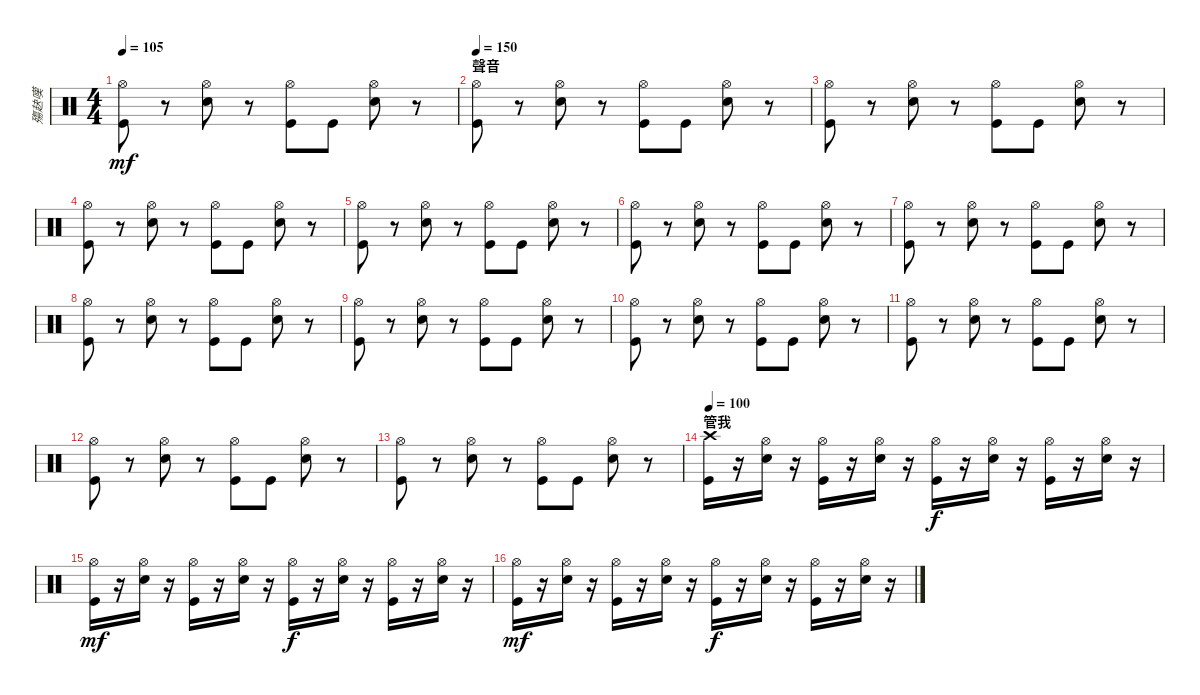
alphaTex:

\track ("殤赽嘆" "殤赽嘆") {instrument percussion}
\staff {score}
\articulation defaults
\ts (4 4)
\tempo 105
\clef neutral
\ks c
("Hi-Hat (open)" "Kick (hit)").8{dy mf} r.8 ("Hi-Hat (open)" "Snare (hit) 2").8 r.8 ("Hi-Hat (open)" "Kick (hit)").8 "Kick (hit)".8 ("Hi-Hat (open)" "Snare (hit) 2").8 r.8 |
\section ("" "聲音")
\tempo 150
("Hi-Hat (open)" "Kick (hit)").8 r.8 ("Hi-Hat (open)" "Snare (hit) 2").8 r.8 ("Hi-Hat (open)" "Kick (hit)").8 "Kick (hit)".8 ("Hi-Hat (open)" "Snare (hit) 2").8 r.8 |
("Hi-Hat (open)" "Kick (hit)").8 r.8 ("Hi-Hat (open)" "Snare (hit) 2").8 r.8 ("Hi-Hat (open)" "Kick (hit)").8 "Kick (hit)".8 ("Hi-Hat (open)" "Snare (hit) 2").8 r.8 |
("Hi-Hat (open)" "Kick (hit)").8 r.8 ("Hi-Hat (open)" "Snare (hit) 2").8 r.8 ("Hi-Hat (open)" "Kick (hit)").8 "Kick (hit)".8 ("Hi-Hat (open)" "Snare (hit) 2").8 r.8 |
("Hi-Hat (open)" "Kick (hit)").8 r.8 ("Hi-Hat (open)" "Snare (hit) 2").8 r.8 ("Hi-Hat (open)" "Kick (hit)").8 "Kick (hit)".8 ("Hi-Hat (open)" "Snare (hit) 2").8 r.8 |
("Hi-Hat (open)" "Kick (hit)").8 r.8 ("Hi-Hat (open)" "Snare (hit) 2").8 r.8 ("Hi-Hat (open)" "Kick (hit)").8 "Kick (hit)".8 ("Hi-Hat (open)" "Snare (hit) 2").8 r.8 |
("Hi-Hat (open)" "Kick (hit)").8 r.8 ("Hi-Hat (open)" "Snare (hit) 2").8 r.8 ("Hi-Hat (open)" "Kick (hit)").8 "Kick (hit)".8 ("Hi-Hat (open)" "Snare (hit) 2").8 r.8 |
("Hi-Hat (open)" "Kick (hit)").8 r.8 ("Hi-Hat (open)" "Snare (hit) 2").8 r.8 ("Hi-Hat (open)" "Kick (hit)").8 "Kick (hit)".8 ("Hi-Hat (open)" "Snare (hit) 2").8 r.8 |
("Hi-Hat (open)" "Kick (hit)").8 r.8 ("Hi-Hat (open)" "Snare (hit) 2").8 r.8 ("Hi-Hat (open)" "Kick (hit)").8 "Kick (hit)".8 ("Hi-Hat (open)" "Snare (hit) 2").8 r.8 |
("Hi-Hat (open)" "Kick (hit)").8 r.8 ("Hi-Hat (open)" "Snare (hit) 2").8 r.8 ("Hi-Hat (open)" "Kick (hit)").8 "Kick (hit)".8 ("Hi-Hat (open)" "Snare (hit) 2").8 r.8 |
("Hi-Hat (open)" "Kick (hit)").8 r.8 ("Hi-Hat (open)" "Snare (hit) 2").8 r.8 ("Hi-Hat (open)" "Kick (hit)").8 "Kick (hit)".8 ("Hi-Hat (open)" "Snare (hit) 2").8 r.8 |
("Hi-Hat (open)" "Kick (hit)").8 r.8 ("Hi-Hat (open)" "Snare (hit) 2").8 r.8 ("Hi-Hat (open)" "Kick (hit)").8 "Kick (hit)".8 ("Hi-Hat (open)" "Snare (hit) 2").8 r.8 |
("Hi-Hat (open)" "Kick (hit)").8 r.8 ("Hi-Hat (open)" "Snare (hit) 2").8 r.8 ("Hi-Hat (open)" "Kick (hit)").8 "Kick (hit)".8 ("Hi-Hat (open)" "Snare (hit) 2").8 r.8 |
\section ("" "管我")
\tempo 100
("Crash high (hit)" "Kick (hit)").16 r.16 ("Hi-Hat (open)" "Snare (hit) 2").16 r.16 ("Hi-Hat (open)" "Kick (hit)").16 r.16 ("Hi-Hat (open)" "Snare (hit) 2").16 r.16 ("Hi-Hat (open)" "Kick (hit)").16{dy f} r.16 ("Hi-Hat (open)" "Snare (hit) 2").16 r.16 ("Hi-Hat (open)" "Kick (hit)").16 r.16 ("Hi-Hat (open)" "Snare (hit) 2").16 r.16 |
("Hi-Hat (open)" "Kick (hit)").16{dy mf} r.16 ("Hi-Hat (open)" "Snare (hit) 2").16 r.16 ("Hi-Hat (open)" "Kick (hit)").16 r.16 ("Hi-Hat (open)" "Snare (hit) 2").16 r.16 ("Hi-Hat (open)" "Kick (hit)").16{dy f} r.16 ("Hi-Hat (open)" "Snare (hit) 2").16 r.16 ("Hi-Hat (open)" "Kick (hit)").16 r.16 ("Hi-Hat (open)" "Snare (hit) 2").16 r.16 |
("Hi-Hat (open)" "Kick (hit)").16{dy mf} r.16 ("Hi-Hat (open)" "Snare (hit) 2").16 r.16 ("Hi-Hat (open)" "Kick (hit)").16 r.16 ("Hi-Hat (open)" "Snare (hit) 2").16 r.16 ("Hi-Hat (open)" "Kick (hit)").16{dy f} r.16 ("Hi-Hat (open)" "Snare (hit) 2").16 r.16 ("Hi-Hat (open)" "Kick (hit)").16 r.16 ("Hi-Hat (open)" "Snare (hit) 2").16 r.16
